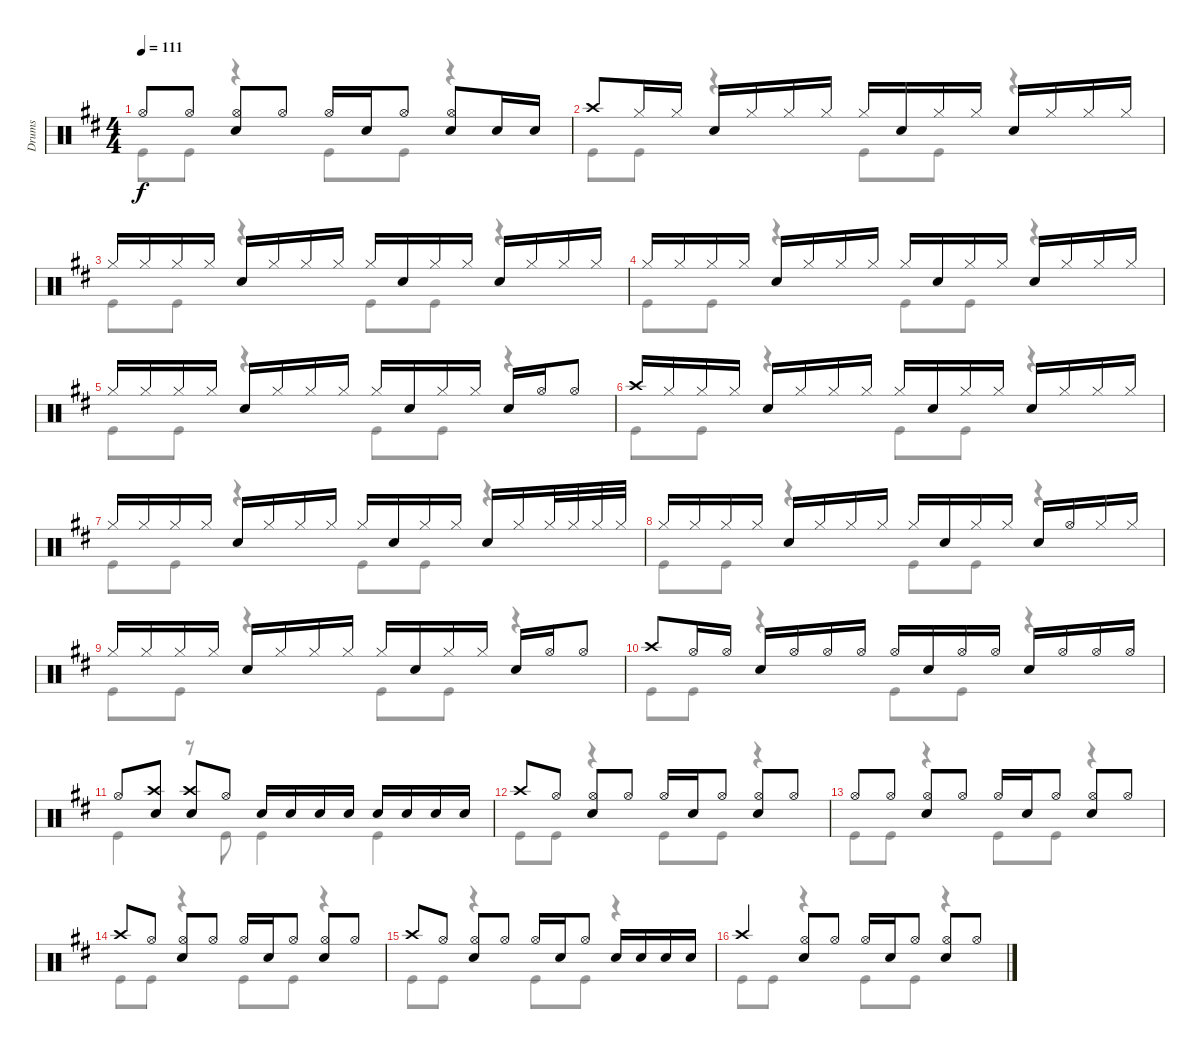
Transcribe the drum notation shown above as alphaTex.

\track ("Drums" "Drums") {instrument percussion}
\staff {score}
\articulation defaults
\voice
\ts (4 4)
\tempo 111
\clef neutral
\ks d "Hi-Hat (open)".8{dy f beam Up} "Hi-Hat (open)".8{beam Up}
("Snare (hit) 2" "Hi-Hat (open)").8{beam Up} "Hi-Hat (open)".8{beam Up} "Hi-Hat (open)".16{beam Up} "Snare (hit) 2".16{beam Up} "Hi-Hat (open)".8{beam Up} ("Hi-Hat (open)" "Snare (hit) 2").8{beam Up} "Snare (hit) 2".16{beam Up} "Snare (hit) 2".16{beam Up} |
"Crash high (hit)".8{beam Up} "Hi-Hat (closed)".16{beam Up} "Hi-Hat (closed)".16{beam Up} "Snare (hit) 2".16{beam Up} "Hi-Hat (closed)".16{beam Up} "Hi-Hat (closed)".16{beam Up} "Hi-Hat (closed)".16{beam Up} "Hi-Hat (closed)".16{beam Up} "Snare (hit) 2".16{beam Up} "Hi-Hat (closed)".16{beam Up} "Hi-Hat (closed)".16{beam Up} "Snare (hit) 2".16{beam Up} "Hi-Hat (closed)".16{beam Up} "Hi-Hat (closed)".16{beam Up} "Hi-Hat (closed)".16{beam Up} |
"Hi-Hat (closed)".16{beam Up} "Hi-Hat (closed)".16{beam Up} "Hi-Hat (closed)".16{beam Up} "Hi-Hat (closed)".16{beam Up} "Snare (hit) 2".16{beam Up} "Hi-Hat (closed)".16{beam Up} "Hi-Hat (closed)".16{beam Up} "Hi-Hat (closed)".16{beam Up} "Hi-Hat (closed)".16{beam Up} "Snare (hit) 2".16{beam Up} "Hi-Hat (closed)".16{beam Up} "Hi-Hat (closed)".16{beam Up} "Snare (hit) 2".16{beam Up} "Hi-Hat (closed)".16{beam Up} "Hi-Hat (closed)".16{beam Up} "Hi-Hat (closed)".16{beam Up} |
"Hi-Hat (closed)".16{beam Up} "Hi-Hat (closed)".16{beam Up} "Hi-Hat (closed)".16{beam Up} "Hi-Hat (closed)".16{beam Up} "Snare (hit) 2".16{beam Up} "Hi-Hat (closed)".16{beam Up} "Hi-Hat (closed)".16{beam Up} "Hi-Hat (closed)".16{beam Up} "Hi-Hat (closed)".16{beam Up} "Snare (hit) 2".16{beam Up} "Hi-Hat (closed)".16{beam Up} "Hi-Hat (closed)".16{beam Up} "Snare (hit) 2".16{beam Up} "Hi-Hat (closed)".16{beam Up} "Hi-Hat (closed)".16{beam Up} "Hi-Hat (closed)".16{beam Up} |
"Hi-Hat (closed)".16{beam Up} "Hi-Hat (closed)".16{beam Up} "Hi-Hat (closed)".16{beam Up} "Hi-Hat (closed)".16{beam Up} "Snare (hit) 2".16{beam Up} "Hi-Hat (closed)".16{beam Up} "Hi-Hat (closed)".16{beam Up} "Hi-Hat (closed)".16{beam Up} "Hi-Hat (closed)".16{beam Up} "Snare (hit) 2".16{beam Up} "Hi-Hat (closed)".16{beam Up} "Hi-Hat (closed)".16{beam Up} "Snare (hit) 2".16{beam Up} "Hi-Hat (open)".16{beam Up} "Hi-Hat (open)".8{beam Up} |
"Crash high (hit)".16{beam Up} "Hi-Hat (closed)".16{beam Up} "Hi-Hat (closed)".16{beam Up} "Hi-Hat (closed)".16{beam Up} "Snare (hit) 2".16{beam Up} "Hi-Hat (closed)".16{beam Up} "Hi-Hat (closed)".16{beam Up} "Hi-Hat (closed)".16{beam Up} "Hi-Hat (closed)".16{beam Up} "Snare (hit) 2".16{beam Up} "Hi-Hat (closed)".16{beam Up} "Hi-Hat (closed)".16{beam Up} "Snare (hit) 2".16{beam Up} "Hi-Hat (closed)".16{beam Up} "Hi-Hat (closed)".16{beam Up} "Hi-Hat (closed)".16{beam Up} |
"Hi-Hat (closed)".16{beam Up} "Hi-Hat (closed)".16{beam Up} "Hi-Hat (closed)".16{beam Up} "Hi-Hat (closed)".16{beam Up} "Snare (hit) 2".16{beam Up} "Hi-Hat (closed)".16{beam Up} "Hi-Hat (closed)".16{beam Up} "Hi-Hat (closed)".16{beam Up} "Hi-Hat (closed)".16{beam Up} "Snare (hit) 2".16{beam Up} "Hi-Hat (closed)".16{beam Up} "Hi-Hat (closed)".16{beam Up} "Snare (hit) 2".16{beam Up} "Hi-Hat (closed)".16{beam Up} "Hi-Hat (closed)".32{beam Up} "Hi-Hat (closed)".32{beam Up} "Hi-Hat (closed)".32{beam Up} "Hi-Hat (closed)".32{beam Up} |
"Hi-Hat (closed)".16{beam Up} "Hi-Hat (closed)".16{beam Up} "Hi-Hat (closed)".16{beam Up} "Hi-Hat (closed)".16{beam Up} "Snare (hit) 2".16{beam Up} "Hi-Hat (closed)".16{beam Up} "Hi-Hat (closed)".16{beam Up} "Hi-Hat (closed)".16{beam Up} "Hi-Hat (closed)".16{beam Up} "Snare (hit) 2".16{beam Up} "Hi-Hat (closed)".16{beam Up} "Hi-Hat (closed)".16{beam Up} "Snare (hit) 2".16{beam Up} "Hi-Hat (open)".16{beam Up} "Hi-Hat (closed)".16{beam Up} "Hi-Hat (closed)".16{beam Up} |
"Hi-Hat (closed)".16{beam Up} "Hi-Hat (closed)".16{beam Up} "Hi-Hat (closed)".16{beam Up} "Hi-Hat (closed)".16{beam Up} "Snare (hit) 2".16{beam Up} "Hi-Hat (closed)".16{beam Up} "Hi-Hat (closed)".16{beam Up} "Hi-Hat (closed)".16{beam Up} "Hi-Hat (closed)".16{beam Up} "Snare (hit) 2".16{beam Up} "Hi-Hat (closed)".16{beam Up} "Hi-Hat (closed)".16{beam Up} "Snare (hit) 2".16{beam Up} "Hi-Hat (open)".16{beam Up} "Hi-Hat (open)".8{beam Up} |
"Crash high (hit)".8{beam Up} "Hi-Hat (open)".16{beam Up} "Hi-Hat (open)".16{beam Up} "Snare (hit) 2".16{beam Up} "Hi-Hat (open)".16{beam Up} "Hi-Hat (open)".16{beam Up} "Hi-Hat (open)".16{beam Up} "Hi-Hat (open)".16{beam Up} "Snare (hit) 2".16{beam Up} "Hi-Hat (open)".16{beam Up} "Hi-Hat (open)".16{beam Up} "Snare (hit) 2".16{beam Up} "Hi-Hat (open)".16{beam Up} "Hi-Hat (open)".16{beam Up} "Hi-Hat (open)".16{beam Up} |
"Hi-Hat (open)".8{beam Up} ("Snare (hit) 2" "Crash high (hit)").8{beam Up} ("Crash high (hit)" "Snare (hit) 2").8{beam Up} "Hi-Hat (open)".8{beam Up} "Snare (hit) 2".16{beam Up} "Snare (hit) 2".16{beam Up} "Snare (hit) 2".16{beam Up} "Snare (hit) 2".16{beam Up} "Snare (hit) 2".16{beam Up} "Snare (hit) 2".16{beam Up} "Snare (hit) 2".16{beam Up} "Snare (hit) 2".16{beam Up} |
"Crash high (hit)".8{beam Up} "Hi-Hat (open)".8{beam Up} ("Snare (hit) 2" "Hi-Hat (open)").8{beam Up} "Hi-Hat (open)".8{beam Up} "Hi-Hat (open)".16{beam Up} "Snare (hit) 2".16{beam Up} "Hi-Hat (open)".8{beam Up} ("Hi-Hat (open)" "Snare (hit) 2").8{beam Up} "Hi-Hat (open)".8{beam Up} |
"Hi-Hat (open)".8{beam Up} "Hi-Hat (open)".8{beam Up} ("Snare (hit) 2" "Hi-Hat (open)").8{beam Up} "Hi-Hat (open)".8{beam Up} "Hi-Hat (open)".16{beam Up} "Snare (hit) 2".16{beam Up} "Hi-Hat (open)".8{beam Up} ("Hi-Hat (open)" "Snare (hit) 2").8{beam Up} "Hi-Hat (open)".8{beam Up} |
"Crash high (hit)".8{beam Up} "Hi-Hat (open)".8{beam Up} ("Snare (hit) 2" "Hi-Hat (open)").8{beam Up} "Hi-Hat (open)".8{beam Up} "Hi-Hat (open)".16{beam Up} "Snare (hit) 2".16{beam Up} "Hi-Hat (open)".8{beam Up} ("Hi-Hat (open)" "Snare (hit) 2").8{beam Up} "Hi-Hat (open)".8{beam Up} |
"Crash high (hit)".8{beam Up} "Hi-Hat (open)".8{beam Up} ("Snare (hit) 2" "Hi-Hat (open)").8{beam Up} "Hi-Hat (open)".8{beam Up} "Hi-Hat (open)".16{beam Up} "Snare (hit) 2".16{beam Up} "Hi-Hat (open)".8{beam Up} "Snare (hit) 2".16{beam Up} "Snare (hit) 2".16{beam Up} "Snare (hit) 2".16{beam Up} "Snare (hit) 2".16{beam Up} |
"Crash high (hit)".4{beam Up} ("Snare (hit) 2" "Hi-Hat (open)").8{beam Up} "Hi-Hat (open)".8{beam Up} "Hi-Hat (open)".16{beam Up} "Snare (hit) 2".16{beam Up} "Hi-Hat (open)".8{beam Up} ("Hi-Hat (open)" "Snare (hit) 2").8{beam Up} "Hi-Hat (open)".8{beam Up}
\voice
\clef neutral
\ottava regular
\simile none
\ks d "Kick (hit)".8{dy f} "Kick (hit)".8
r.4 "Kick (hit)".8 "Kick (hit)".8 r.4 |
"Kick (hit)".8 "Kick (hit)".8 r.4 "Kick (hit)".8 "Kick (hit)".8 r.4 |
"Kick (hit)".8 "Kick (hit)".8 r.4 "Kick (hit)".8 "Kick (hit)".8 r.4 |
"Kick (hit)".8 "Kick (hit)".8 r.4 "Kick (hit)".8 "Kick (hit)".8 r.4 |
"Kick (hit)".8 "Kick (hit)".8 r.4 "Kick (hit)".8 "Kick (hit)".8 r.4 |
"Kick (hit)".8 "Kick (hit)".8 r.4 "Kick (hit)".8 "Kick (hit)".8 r.4 |
"Kick (hit)".8 "Kick (hit)".8 r.4 "Kick (hit)".8 "Kick (hit)".8 r.4 |
"Kick (hit)".8 "Kick (hit)".8 r.4 "Kick (hit)".8 "Kick (hit)".8 r.4 |
"Kick (hit)".8 "Kick (hit)".8 r.4 "Kick (hit)".8 "Kick (hit)".8 r.4 |
"Kick (hit)".8 "Kick (hit)".8 r.4 "Kick (hit)".8 "Kick (hit)".8 r.4 |
"Kick (hit)".4 r.8 "Kick (hit)".8 "Kick (hit)".4 "Kick (hit)".4 |
"Kick (hit)".8 "Kick (hit)".8 r.4 "Kick (hit)".8 "Kick (hit)".8 r.4 |
"Kick (hit)".8 "Kick (hit)".8 r.4 "Kick (hit)".8 "Kick (hit)".8 r.4 |
"Kick (hit)".8 "Kick (hit)".8 r.4 "Kick (hit)".8 "Kick (hit)".8 r.4 |
"Kick (hit)".8 "Kick (hit)".8 r.4 "Kick (hit)".8 "Kick (hit)".8 r.4 |
"Kick (hit)".8 "Kick (hit)".8 r.4 "Kick (hit)".8 "Kick (hit)".8 r.4
